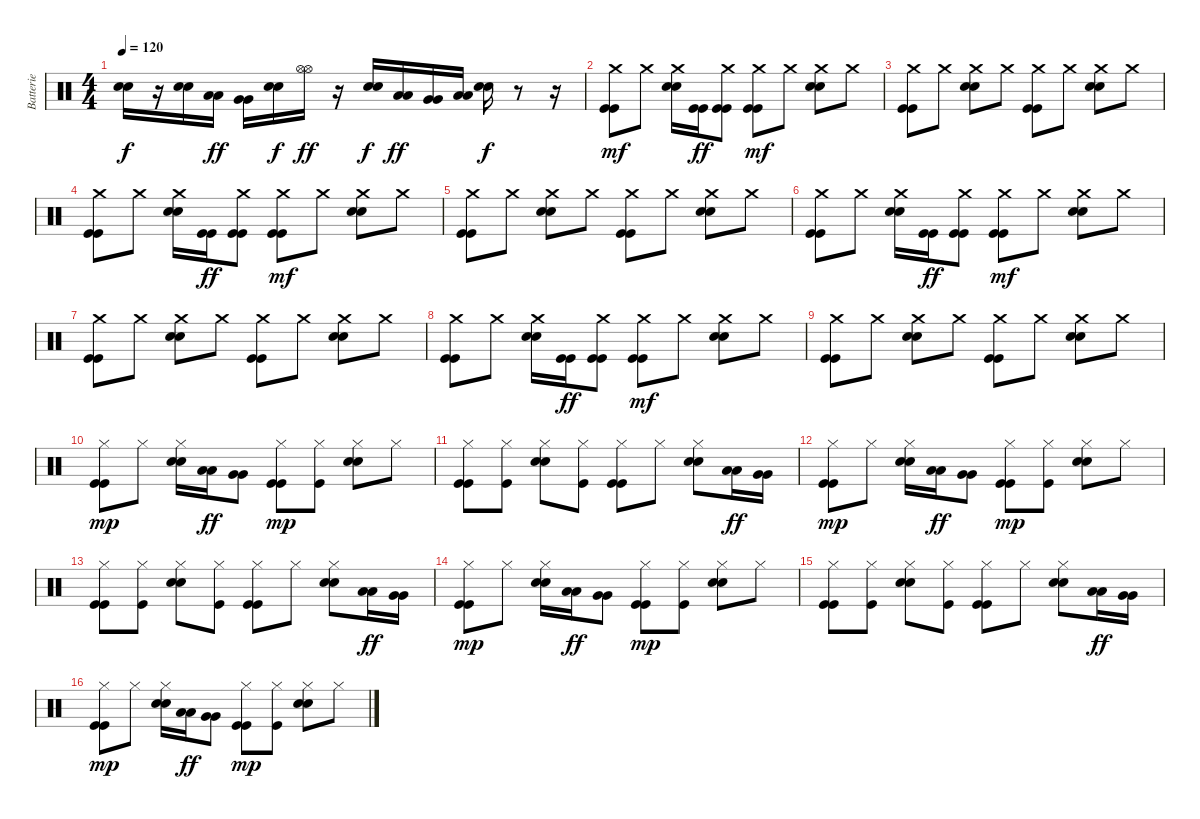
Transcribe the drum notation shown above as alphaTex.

\track ("Batterie" "Batterie") {instrument percussion}
\staff {score}
\articulation defaults
\ts (4 4)
\tempo 120
\clef neutral
\ks c
("Electric Snare (hit)" "Electric Snare (hit)").16{dy f} r.16 ("Electric Snare (hit)" "Electric Snare (hit)").16 ("Low Tom (hit)" "Low Tom (hit)").16{dy ff} ("Very Low Tom (hit)" "Very Low Tom (hit)").16 ("Electric Snare (hit)" "Electric Snare (hit)").16{dy f} ("Hi-Hat (open)" "Hi-Hat (open)").16{dy ff} r.16 ("Electric Snare (hit)" "Electric Snare (hit)").16{dy f} ("Low Tom (hit)" "Low Tom (hit)").16{dy ff} ("Very Low Tom (hit)" "Very Low Tom (hit)").16 ("Low Floor Tom (hit)" "Low Floor Tom (hit)").16 ("Electric Snare (hit)" "Electric Snare (hit)").16{dy f} r.8 r.16 |
("Crash medium (hit)" "Kick (hit)" "Kick (hit)").8{dy mf} "Crash medium (hit)".8 ("Crash medium (hit)" "Electric Snare (hit)" "Electric Snare (hit)").16 ("Kick (hit)" "Kick (hit)").16{dy ff} ("Crash medium (hit)" "Kick (hit)" "Kick (hit)").8 ("Crash medium (hit)" "Kick (hit)" "Kick (hit)").8{dy mf} "Crash medium (hit)".8 ("Crash medium (hit)" "Electric Snare (hit)" "Electric Snare (hit)").8 "Crash medium (hit)".8 |
("Crash medium (hit)" "Kick (hit)" "Kick (hit)").8 "Crash medium (hit)".8 ("Crash medium (hit)" "Electric Snare (hit)" "Electric Snare (hit)").8 "Crash medium (hit)".8 ("Crash medium (hit)" "Kick (hit)" "Kick (hit)").8 "Crash medium (hit)".8 ("Crash medium (hit)" "Electric Snare (hit)" "Electric Snare (hit)").8 "Crash medium (hit)".8 |
("Crash medium (hit)" "Kick (hit)" "Kick (hit)").8 "Crash medium (hit)".8 ("Crash medium (hit)" "Electric Snare (hit)" "Electric Snare (hit)").16 ("Kick (hit)" "Kick (hit)").16{dy ff} ("Crash medium (hit)" "Kick (hit)" "Kick (hit)").8 ("Crash medium (hit)" "Kick (hit)" "Kick (hit)").8{dy mf} "Crash medium (hit)".8 ("Crash medium (hit)" "Electric Snare (hit)" "Electric Snare (hit)").8 "Crash medium (hit)".8 |
("Crash medium (hit)" "Kick (hit)" "Kick (hit)").8 "Crash medium (hit)".8 ("Crash medium (hit)" "Electric Snare (hit)" "Electric Snare (hit)").8 "Crash medium (hit)".8 ("Crash medium (hit)" "Kick (hit)" "Kick (hit)").8 "Crash medium (hit)".8 ("Crash medium (hit)" "Electric Snare (hit)" "Electric Snare (hit)").8 "Crash medium (hit)".8 |
("Crash medium (hit)" "Kick (hit)" "Kick (hit)").8 "Crash medium (hit)".8 ("Crash medium (hit)" "Electric Snare (hit)" "Electric Snare (hit)").16 ("Kick (hit)" "Kick (hit)").16{dy ff} ("Crash medium (hit)" "Kick (hit)" "Kick (hit)").8 ("Crash medium (hit)" "Kick (hit)" "Kick (hit)").8{dy mf} "Crash medium (hit)".8 ("Crash medium (hit)" "Electric Snare (hit)" "Electric Snare (hit)").8 "Crash medium (hit)".8 |
("Crash medium (hit)" "Kick (hit)" "Kick (hit)").8 "Crash medium (hit)".8 ("Crash medium (hit)" "Electric Snare (hit)" "Electric Snare (hit)").8 "Crash medium (hit)".8 ("Crash medium (hit)" "Kick (hit)" "Kick (hit)").8 "Crash medium (hit)".8 ("Crash medium (hit)" "Electric Snare (hit)" "Electric Snare (hit)").8 "Crash medium (hit)".8 |
("Crash medium (hit)" "Kick (hit)" "Kick (hit)").8 "Crash medium (hit)".8 ("Crash medium (hit)" "Electric Snare (hit)" "Electric Snare (hit)").16 ("Kick (hit)" "Kick (hit)").16{dy ff} ("Crash medium (hit)" "Kick (hit)" "Kick (hit)").8 ("Crash medium (hit)" "Kick (hit)" "Kick (hit)").8{dy mf} "Crash medium (hit)".8 ("Crash medium (hit)" "Electric Snare (hit)" "Electric Snare (hit)").8 "Crash medium (hit)".8 |
("Crash medium (hit)" "Kick (hit)" "Kick (hit)").8 "Crash medium (hit)".8 ("Crash medium (hit)" "Electric Snare (hit)" "Electric Snare (hit)").8 "Crash medium (hit)".8 ("Crash medium (hit)" "Kick (hit)" "Kick (hit)").8 "Crash medium (hit)".8 ("Crash medium (hit)" "Electric Snare (hit)" "Electric Snare (hit)").8 "Crash medium (hit)".8 |
("Hi-Hat (closed)" "Kick (hit)" "Kick (hit)").8{dy mp} "Hi-Hat (closed)".8 ("Hi-Hat (closed)" "Electric Snare (hit)" "Electric Snare (hit)").16 ("Low Tom (hit)" "Low Tom (hit)").16{dy ff} ("Very Low Tom (hit)" "Very Low Tom (hit)").8 ("Hi-Hat (closed)" "Kick (hit)" "Kick (hit)").8{dy mp} ("Hi-Hat (closed)" "Kick (hit)").8 ("Hi-Hat (closed)" "Electric Snare (hit)" "Electric Snare (hit)").8 "Hi-Hat (closed)".8 |
("Hi-Hat (closed)" "Kick (hit)" "Kick (hit)").8 ("Hi-Hat (closed)" "Kick (hit)").8 ("Hi-Hat (closed)" "Electric Snare (hit)" "Electric Snare (hit)").8 ("Hi-Hat (closed)" "Kick (hit)").8 ("Hi-Hat (closed)" "Kick (hit)" "Kick (hit)").8 "Hi-Hat (closed)".8 ("Hi-Hat (closed)" "Electric Snare (hit)" "Electric Snare (hit)").8 ("Low Tom (hit)" "Low Tom (hit)").16{dy ff} ("Very Low Tom (hit)" "Very Low Tom (hit)").16 |
("Hi-Hat (closed)" "Kick (hit)" "Kick (hit)").8{dy mp} "Hi-Hat (closed)".8 ("Hi-Hat (closed)" "Electric Snare (hit)" "Electric Snare (hit)").16 ("Low Tom (hit)" "Low Tom (hit)").16{dy ff} ("Very Low Tom (hit)" "Very Low Tom (hit)").8 ("Hi-Hat (closed)" "Kick (hit)" "Kick (hit)").8{dy mp} ("Hi-Hat (closed)" "Kick (hit)").8 ("Hi-Hat (closed)" "Electric Snare (hit)" "Electric Snare (hit)").8 "Hi-Hat (closed)".8 |
("Hi-Hat (closed)" "Kick (hit)" "Kick (hit)").8 ("Hi-Hat (closed)" "Kick (hit)").8 ("Hi-Hat (closed)" "Electric Snare (hit)" "Electric Snare (hit)").8 ("Hi-Hat (closed)" "Kick (hit)").8 ("Hi-Hat (closed)" "Kick (hit)" "Kick (hit)").8 "Hi-Hat (closed)".8 ("Hi-Hat (closed)" "Electric Snare (hit)" "Electric Snare (hit)").8 ("Low Tom (hit)" "Low Tom (hit)").16{dy ff} ("Very Low Tom (hit)" "Very Low Tom (hit)").16 |
("Hi-Hat (closed)" "Kick (hit)" "Kick (hit)").8{dy mp} "Hi-Hat (closed)".8 ("Hi-Hat (closed)" "Electric Snare (hit)" "Electric Snare (hit)").16 ("Low Tom (hit)" "Low Tom (hit)").16{dy ff} ("Very Low Tom (hit)" "Very Low Tom (hit)").8 ("Hi-Hat (closed)" "Kick (hit)" "Kick (hit)").8{dy mp} ("Hi-Hat (closed)" "Kick (hit)").8 ("Hi-Hat (closed)" "Electric Snare (hit)" "Electric Snare (hit)").8 "Hi-Hat (closed)".8 |
("Hi-Hat (closed)" "Kick (hit)" "Kick (hit)").8 ("Hi-Hat (closed)" "Kick (hit)").8 ("Hi-Hat (closed)" "Electric Snare (hit)" "Electric Snare (hit)").8 ("Hi-Hat (closed)" "Kick (hit)").8 ("Hi-Hat (closed)" "Kick (hit)" "Kick (hit)").8 "Hi-Hat (closed)".8 ("Hi-Hat (closed)" "Electric Snare (hit)" "Electric Snare (hit)").8 ("Low Tom (hit)" "Low Tom (hit)").16{dy ff} ("Very Low Tom (hit)" "Very Low Tom (hit)").16 |
("Hi-Hat (closed)" "Kick (hit)" "Kick (hit)").8{dy mp} "Hi-Hat (closed)".8 ("Hi-Hat (closed)" "Electric Snare (hit)" "Electric Snare (hit)").16 ("Low Tom (hit)" "Low Tom (hit)").16{dy ff} ("Very Low Tom (hit)" "Very Low Tom (hit)").8 ("Hi-Hat (closed)" "Kick (hit)" "Kick (hit)").8{dy mp} ("Hi-Hat (closed)" "Kick (hit)").8 ("Hi-Hat (closed)" "Electric Snare (hit)" "Electric Snare (hit)").8 "Hi-Hat (closed)".8
